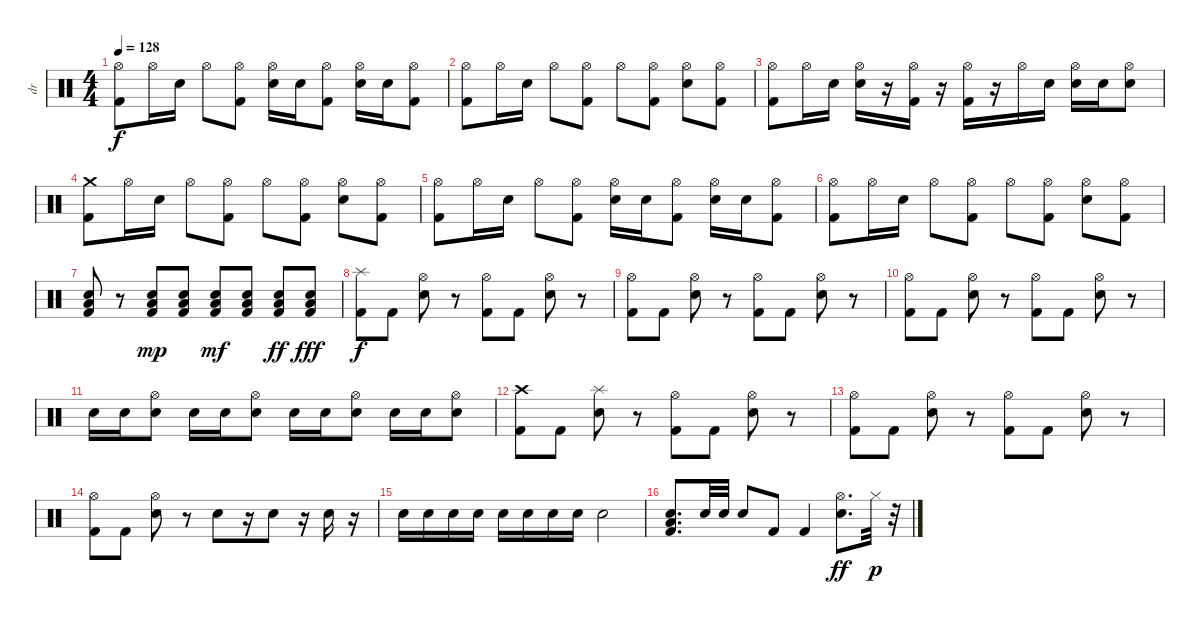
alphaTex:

\track ("dr" "dr") {instrument percussion}
\staff {score}
\articulation defaults
\ts (4 4)
\tempo 128
\clef neutral
\ks c
("Hi-Hat (open)" "Kick (hit) 2").8{dy f} "Hi-Hat (open)".16 "Electric Snare (hit)".16 "Hi-Hat (open)".8 ("Hi-Hat (open)" "Kick (hit) 2").8 ("Hi-Hat (open)" "Electric Snare (hit)").16 "Electric Snare (hit)".16 ("Hi-Hat (open)" "Kick (hit) 2").8 ("Hi-Hat (open)" "Electric Snare (hit)").16 "Electric Snare (hit)".16 ("Hi-Hat (open)" "Kick (hit) 2").8 |
("Hi-Hat (open)" "Kick (hit) 2").8 "Hi-Hat (open)".16 "Electric Snare (hit)".16 "Hi-Hat (open)".8 ("Hi-Hat (open)" "Kick (hit) 2").8 "Hi-Hat (open)".8 ("Hi-Hat (open)" "Kick (hit) 2").8 ("Hi-Hat (open)" "Electric Snare (hit)").8 ("Hi-Hat (open)" "Kick (hit) 2").8 |
("Hi-Hat (open)" "Kick (hit) 2").8 "Hi-Hat (open)".16 "Electric Snare (hit)".16 ("Hi-Hat (open)" "Electric Snare (hit)").16 r.16 ("Hi-Hat (open)" "Kick (hit) 2").16 r.16 ("Hi-Hat (open)" "Kick (hit) 2").16 r.16 "Hi-Hat (open)".16 "Electric Snare (hit)".16 ("Hi-Hat (open)" "Electric Snare (hit)").16 "Electric Snare (hit)".16 ("Hi-Hat (open)" "Electric Snare (hit)").8 |
("Crash medium (hit)" "Kick (hit) 2").8 "Hi-Hat (open)".16 "Electric Snare (hit)".16 "Hi-Hat (open)".8 ("Hi-Hat (open)" "Kick (hit) 2").8 "Hi-Hat (open)".8 ("Hi-Hat (open)" "Kick (hit) 2").8 ("Hi-Hat (open)" "Electric Snare (hit)").8 ("Hi-Hat (open)" "Kick (hit) 2").8 |
("Hi-Hat (open)" "Kick (hit) 2").8 "Hi-Hat (open)".16 "Electric Snare (hit)".16 "Hi-Hat (open)".8 ("Hi-Hat (open)" "Kick (hit) 2").8 ("Hi-Hat (open)" "Electric Snare (hit)").16 "Electric Snare (hit)".16 ("Hi-Hat (open)" "Kick (hit) 2").8 ("Hi-Hat (open)" "Electric Snare (hit)").16 "Electric Snare (hit)".16 ("Hi-Hat (open)" "Kick (hit) 2").8 |
("Hi-Hat (open)" "Kick (hit) 2").8 "Hi-Hat (open)".16 "Electric Snare (hit)".16 "Hi-Hat (open)".8 ("Hi-Hat (open)" "Kick (hit) 2").8 "Hi-Hat (open)".8 ("Hi-Hat (open)" "Kick (hit) 2").8 ("Hi-Hat (open)" "Electric Snare (hit)").8 ("Hi-Hat (open)" "Kick (hit) 2").8 |
("Electric Snare (hit)" "Low Tom (hit)" "Kick (hit) 2").8 r.8 ("Electric Snare (hit)" "Low Tom (hit)" "Kick (hit) 2").8{dy mp} ("Electric Snare (hit)" "Low Tom (hit)" "Kick (hit) 2").8 ("Electric Snare (hit)" "Low Tom (hit)" "Kick (hit) 2").8{dy mf} ("Electric Snare (hit)" "Low Tom (hit)" "Kick (hit) 2").8 ("Electric Snare (hit)" "Low Tom (hit)" "Kick (hit) 2").8{dy ff} ("Electric Snare (hit)" "Low Tom (hit)" "Kick (hit) 2").8{dy fff} |
("Splash (hit)" "Kick (hit) 2").8{dy f} "Kick (hit) 2".8 ("Hi-Hat (open)" "Electric Snare (hit)").8 r.8 ("Hi-Hat (open)" "Kick (hit) 2").8 "Kick (hit) 2".8 ("Hi-Hat (open)" "Electric Snare (hit)").8 r.8 |
("Hi-Hat (open)" "Kick (hit) 2").8 "Kick (hit) 2".8 ("Hi-Hat (open)" "Electric Snare (hit)").8 r.8 ("Hi-Hat (open)" "Kick (hit) 2").8 "Kick (hit) 2".8 ("Hi-Hat (open)" "Electric Snare (hit)").8 r.8 |
("Hi-Hat (open)" "Kick (hit) 2").8 "Kick (hit) 2".8 ("Hi-Hat (open)" "Electric Snare (hit)").8 r.8 ("Hi-Hat (open)" "Kick (hit) 2").8 "Kick (hit) 2".8 ("Hi-Hat (open)" "Electric Snare (hit)").8 r.8 |
"Electric Snare (hit)".16 "Electric Snare (hit)".16 ("Hi-Hat (open)" "Electric Snare (hit)").8 "Electric Snare (hit)".16 "Electric Snare (hit)".16 ("Hi-Hat (open)" "Electric Snare (hit)").8 "Electric Snare (hit)".16 "Electric Snare (hit)".16 ("Hi-Hat (open)" "Electric Snare (hit)").8 "Electric Snare (hit)".16 "Electric Snare (hit)".16 ("Hi-Hat (open)" "Electric Snare (hit)").8 |
("Crash high (hit)" "Kick (hit) 2").8 "Kick (hit) 2".8 ("Splash (hit)" "Electric Snare (hit)").8 r.8 ("Hi-Hat (open)" "Kick (hit) 2").8 "Kick (hit) 2".8 ("Hi-Hat (open)" "Electric Snare (hit)").8 r.8 |
("Hi-Hat (open)" "Kick (hit) 2").8 "Kick (hit) 2".8 ("Hi-Hat (open)" "Electric Snare (hit)").8 r.8 ("Hi-Hat (open)" "Kick (hit) 2").8 "Kick (hit) 2".8 ("Hi-Hat (open)" "Electric Snare (hit)").8 r.8 |
("Hi-Hat (open)" "Kick (hit) 2").8 "Kick (hit) 2".8 ("Hi-Hat (open)" "Electric Snare (hit)").8 r.8 "Electric Snare (hit)".8 r.16 "Electric Snare (hit)".8 r.16 "Electric Snare (hit)".16 r.16 |
"Electric Snare (hit)".16 "Electric Snare (hit)".16 "Electric Snare (hit)".16 "Electric Snare (hit)".16 "Electric Snare (hit)".16 "Electric Snare (hit)".16 "Electric Snare (hit)".16 "Electric Snare (hit)".16 "Electric Snare (hit)".2 |
("Electric Snare (hit)" "Low Floor Tom (hit)" "Kick (hit) 2").8{d} "Electric Snare (hit)".32 "Electric Snare (hit)".32 "Electric Snare (hit)".8 "Kick (hit) 2".8 "Kick (hit) 2".4 ("Hi-Hat (open)" "Electric Snare (hit)").8{d dy ff} "Hi-Hat (closed)".32{dy p} r.32
